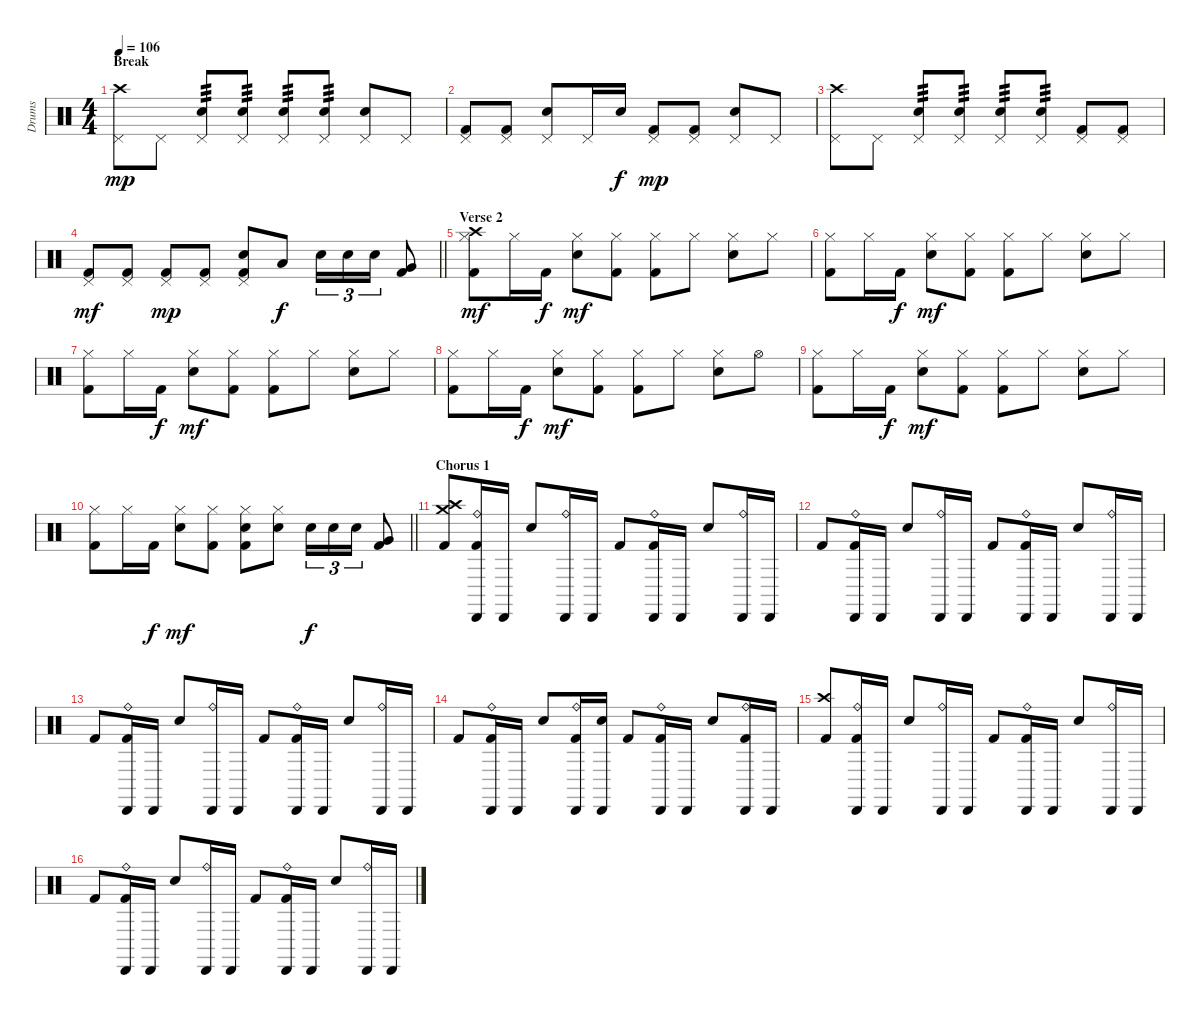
\track ("Drums" "Drums") {instrument percussion}
\staff {score}
\articulation defaults
\ts (4 4)
\section ("" "Break")
\tempo 106
\clef neutral
\ks c
("Crash high (hit)" "Pedal Hi-Hat (hit)").8{dy mp} "Pedal Hi-Hat (hit)".8 ("Snare (hit) 2" "Pedal Hi-Hat (hit)").8{tp 3} ("Snare (hit) 2" "Pedal Hi-Hat (hit)").8{tp 3} ("Snare (hit) 2" "Pedal Hi-Hat (hit)").8{tp 3} ("Snare (hit) 2" "Pedal Hi-Hat (hit)").8{tp 3} ("Snare (hit) 2" "Pedal Hi-Hat (hit)").8 "Pedal Hi-Hat (hit)".8 |
("Pedal Hi-Hat (hit)" "Kick (hit) 2").8 ("Pedal Hi-Hat (hit)" "Kick (hit) 2").8 ("Snare (hit) 2" "Pedal Hi-Hat (hit)").8 "Pedal Hi-Hat (hit)".16 "Snare (hit) 2".16{dy f} ("Pedal Hi-Hat (hit)" "Kick (hit) 2").8{dy mp} ("Pedal Hi-Hat (hit)" "Kick (hit) 2").8 ("Snare (hit) 2" "Pedal Hi-Hat (hit)").8 "Pedal Hi-Hat (hit)".8 |
("Crash high (hit)" "Pedal Hi-Hat (hit)").8 "Pedal Hi-Hat (hit)".8 ("Snare (hit) 2" "Pedal Hi-Hat (hit)").8{tp 3} ("Snare (hit) 2" "Pedal Hi-Hat (hit)").8{tp 3} ("Snare (hit) 2" "Pedal Hi-Hat (hit)").8{tp 3} ("Snare (hit) 2" "Pedal Hi-Hat (hit)").8{tp 3} ("Pedal Hi-Hat (hit)" "Kick (hit) 2").8 ("Pedal Hi-Hat (hit)" "Kick (hit) 2").8 |
\barLineRight lightlight
("Pedal Hi-Hat (hit)" "Kick (hit) 2").8{dy mf} ("Pedal Hi-Hat (hit)" "Kick (hit) 2").8 ("Pedal Hi-Hat (hit)" "Kick (hit) 2").8{dy mp} ("Pedal Hi-Hat (hit)" "Kick (hit) 2").8 ("Snare (hit) 2" "Pedal Hi-Hat (hit)" "Kick (hit) 2").8 "Low Tom (hit)".8{dy f} "Snare (hit) 2".16{tu (3 2)} "Snare (hit) 2".16{tu (3 2)} "Electric Snare (hit)".16{tu (3 2)} ("Very Low Tom (hit)" "Kick (hit) 2").8 |
\section ("" "Verse 2")
("Crash high (hit)" "Hi-Hat (closed)" "Kick (hit) 2").8{dy mf} "Hi-Hat (closed)".16 "Kick (hit) 2".16{dy f} ("Hi-Hat (closed)" "Snare (hit) 2").8{dy mf} ("Hi-Hat (closed)" "Kick (hit) 2").8 ("Hi-Hat (closed)" "Kick (hit) 2").8 "Hi-Hat (closed)".8 ("Hi-Hat (closed)" "Snare (hit) 2").8 "Hi-Hat (closed)".8 |
("Hi-Hat (closed)" "Kick (hit) 2").8 "Hi-Hat (closed)".16 "Kick (hit) 2".16{dy f} ("Hi-Hat (closed)" "Snare (hit) 2").8{dy mf} ("Hi-Hat (closed)" "Kick (hit) 2").8 ("Hi-Hat (closed)" "Kick (hit) 2").8 "Hi-Hat (closed)".8 ("Hi-Hat (closed)" "Snare (hit) 2").8 "Hi-Hat (closed)".8 |
("Hi-Hat (closed)" "Kick (hit) 2").8 "Hi-Hat (closed)".16 "Kick (hit) 2".16{dy f} ("Hi-Hat (closed)" "Snare (hit) 2").8{dy mf} ("Hi-Hat (closed)" "Kick (hit) 2").8 ("Hi-Hat (closed)" "Kick (hit) 2").8 "Hi-Hat (closed)".8 ("Hi-Hat (closed)" "Snare (hit) 2").8 "Hi-Hat (closed)".8 |
("Hi-Hat (closed)" "Kick (hit) 2").8 "Hi-Hat (closed)".16 "Kick (hit) 2".16{dy f} ("Hi-Hat (closed)" "Snare (hit) 2").8{dy mf} ("Hi-Hat (closed)" "Kick (hit) 2").8 ("Hi-Hat (closed)" "Kick (hit) 2").8 "Hi-Hat (closed)".8 ("Hi-Hat (closed)" "Snare (hit) 2").8 "Hi-Hat (open)".8 |
("Hi-Hat (closed)" "Kick (hit) 2").8 "Hi-Hat (closed)".16 "Kick (hit) 2".16{dy f} ("Hi-Hat (closed)" "Snare (hit) 2").8{dy mf} ("Hi-Hat (closed)" "Kick (hit) 2").8 ("Hi-Hat (closed)" "Kick (hit) 2").8 "Hi-Hat (closed)".8 ("Hi-Hat (closed)" "Snare (hit) 2").8 "Hi-Hat (closed)".8 |
\barLineRight lightlight
("Hi-Hat (closed)" "Kick (hit) 2").8 "Hi-Hat (closed)".16 "Kick (hit) 2".16{dy f} ("Hi-Hat (closed)" "Snare (hit) 2").8{dy mf} ("Hi-Hat (closed)" "Kick (hit) 2").8 ("Hi-Hat (closed)" "Snare (hit) 2" "Kick (hit) 2").8 ("Hi-Hat (closed)" "Snare (hit) 2").8 "Snare (hit) 2".16{tu (3 2) dy f} "Snare (hit) 2".16{tu (3 2)} "Electric Snare (hit)".16{tu (3 2)} ("Very Low Tom (hit)" "Kick (hit) 2").8 |
\section ("" "Chorus 1")
("Crash high (hit)" "Crash medium (hit)" "Kick (hit) 2").8 ("Ride (bell)" "Cabasa (hit)" "Kick (hit) 2").16 "Cabasa (hit)".16 "Snare (hit) 2".8 ("Ride (bell)" "Cabasa (hit)").16 "Cabasa (hit)".16 "Kick (hit) 2".8 ("Ride (bell)" "Cabasa (hit)" "Kick (hit) 2").16 "Cabasa (hit)".16 "Snare (hit) 2".8 ("Ride (bell)" "Cabasa (hit)").16 "Cabasa (hit)".16 |
"Kick (hit) 2".8 ("Ride (bell)" "Cabasa (hit)" "Kick (hit) 2").16 "Cabasa (hit)".16 "Snare (hit) 2".8 ("Ride (bell)" "Cabasa (hit)").16 "Cabasa (hit)".16 "Kick (hit) 2".8 ("Ride (bell)" "Cabasa (hit)" "Kick (hit) 2").16 "Cabasa (hit)".16 "Snare (hit) 2".8 ("Ride (bell)" "Cabasa (hit)").16 "Cabasa (hit)".16 |
"Kick (hit) 2".8 ("Ride (bell)" "Cabasa (hit)" "Kick (hit) 2").16 "Cabasa (hit)".16 "Snare (hit) 2".8 ("Ride (bell)" "Cabasa (hit)").16 "Cabasa (hit)".16 "Kick (hit) 2".8 ("Ride (bell)" "Cabasa (hit)" "Kick (hit) 2").16 "Cabasa (hit)".16 "Snare (hit) 2".8 ("Ride (bell)" "Cabasa (hit)").16 "Cabasa (hit)".16 |
"Kick (hit) 2".8 ("Ride (bell)" "Cabasa (hit)" "Kick (hit) 2").16 "Cabasa (hit)".16 "Snare (hit) 2".8 ("Ride (bell)" "Cabasa (hit)" "Kick (hit) 2").16 ("Cabasa (hit)" "Snare (hit) 2").16 "Kick (hit) 2".8 ("Ride (bell)" "Cabasa (hit)" "Kick (hit) 2").16 "Cabasa (hit)".16 "Snare (hit) 2".8 ("Ride (bell)" "Cabasa (hit)" "Kick (hit) 2").16 "Cabasa (hit)".16 |
("Crash high (hit)" "Kick (hit) 2").8 ("Ride (bell)" "Cabasa (hit)" "Kick (hit) 2").16 "Cabasa (hit)".16 "Snare (hit) 2".8 ("Ride (bell)" "Cabasa (hit)").16 "Cabasa (hit)".16 "Kick (hit) 2".8 ("Ride (bell)" "Cabasa (hit)" "Kick (hit) 2").16 "Cabasa (hit)".16 "Snare (hit) 2".8 ("Ride (bell)" "Cabasa (hit)").16 "Cabasa (hit)".16 |
"Kick (hit) 2".8 ("Ride (bell)" "Cabasa (hit)" "Kick (hit) 2").16 "Cabasa (hit)".16 "Snare (hit) 2".8 ("Ride (bell)" "Cabasa (hit)").16 "Cabasa (hit)".16 "Kick (hit) 2".8 ("Ride (bell)" "Cabasa (hit)" "Kick (hit) 2").16 "Cabasa (hit)".16 "Snare (hit) 2".8 ("Ride (bell)" "Cabasa (hit)").16 "Cabasa (hit)".16
